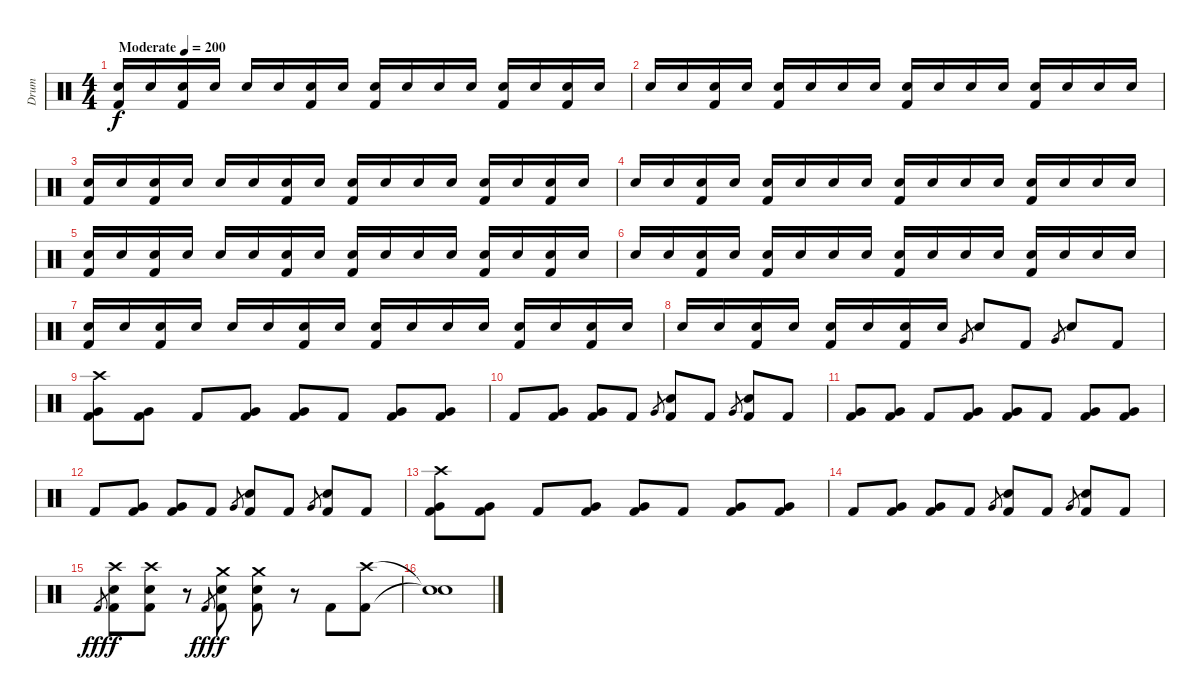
\track ("Drum" "Drum") {instrument percussion}
\staff {score}
\articulation defaults
\ts (4 4)
\tempo (200 "Moderate")
\clef neutral
\ks c
("Electric Snare (hit)" "Kick (hit) 2").16{dy f} "Electric Snare (hit)".16 ("Electric Snare (hit)" "Kick (hit) 2").16 "Electric Snare (hit)".16 "Electric Snare (hit)".16 "Electric Snare (hit)".16 ("Electric Snare (hit)" "Kick (hit) 2").16 "Electric Snare (hit)".16 ("Electric Snare (hit)" "Kick (hit) 2").16 "Electric Snare (hit)".16 "Electric Snare (hit)".16 "Electric Snare (hit)".16 ("Electric Snare (hit)" "Kick (hit) 2").16 "Electric Snare (hit)".16 ("Electric Snare (hit)" "Kick (hit) 2").16 "Electric Snare (hit)".16 |
"Electric Snare (hit)".16 "Electric Snare (hit)".16 ("Electric Snare (hit)" "Kick (hit) 2").16 "Electric Snare (hit)".16 ("Electric Snare (hit)" "Kick (hit) 2").16 "Electric Snare (hit)".16 "Electric Snare (hit)".16 "Electric Snare (hit)".16 ("Electric Snare (hit)" "Kick (hit) 2").16 "Electric Snare (hit)".16 "Electric Snare (hit)".16 "Electric Snare (hit)".16 ("Electric Snare (hit)" "Kick (hit) 2").16 "Electric Snare (hit)".16 "Electric Snare (hit)".16 "Electric Snare (hit)".16 |
("Electric Snare (hit)" "Kick (hit) 2").16 "Electric Snare (hit)".16 ("Electric Snare (hit)" "Kick (hit) 2").16 "Electric Snare (hit)".16 "Electric Snare (hit)".16 "Electric Snare (hit)".16 ("Electric Snare (hit)" "Kick (hit) 2").16 "Electric Snare (hit)".16 ("Electric Snare (hit)" "Kick (hit) 2").16 "Electric Snare (hit)".16 "Electric Snare (hit)".16 "Electric Snare (hit)".16 ("Electric Snare (hit)" "Kick (hit) 2").16 "Electric Snare (hit)".16 ("Electric Snare (hit)" "Kick (hit) 2").16 "Electric Snare (hit)".16 |
"Electric Snare (hit)".16 "Electric Snare (hit)".16 ("Electric Snare (hit)" "Kick (hit) 2").16 "Electric Snare (hit)".16 ("Electric Snare (hit)" "Kick (hit) 2").16 "Electric Snare (hit)".16 "Electric Snare (hit)".16 "Electric Snare (hit)".16 ("Electric Snare (hit)" "Kick (hit) 2").16 "Electric Snare (hit)".16 "Electric Snare (hit)".16 "Electric Snare (hit)".16 ("Electric Snare (hit)" "Kick (hit) 2").16 "Electric Snare (hit)".16 "Electric Snare (hit)".16 "Electric Snare (hit)".16 |
("Electric Snare (hit)" "Kick (hit) 2").16 "Electric Snare (hit)".16 ("Electric Snare (hit)" "Kick (hit) 2").16 "Electric Snare (hit)".16 "Electric Snare (hit)".16 "Electric Snare (hit)".16 ("Electric Snare (hit)" "Kick (hit) 2").16 "Electric Snare (hit)".16 ("Electric Snare (hit)" "Kick (hit) 2").16 "Electric Snare (hit)".16 "Electric Snare (hit)".16 "Electric Snare (hit)".16 ("Electric Snare (hit)" "Kick (hit) 2").16 "Electric Snare (hit)".16 ("Electric Snare (hit)" "Kick (hit) 2").16 "Electric Snare (hit)".16 |
"Electric Snare (hit)".16 "Electric Snare (hit)".16 ("Electric Snare (hit)" "Kick (hit) 2").16 "Electric Snare (hit)".16 ("Electric Snare (hit)" "Kick (hit) 2").16 "Electric Snare (hit)".16 "Electric Snare (hit)".16 "Electric Snare (hit)".16 ("Electric Snare (hit)" "Kick (hit) 2").16 "Electric Snare (hit)".16 "Electric Snare (hit)".16 "Electric Snare (hit)".16 ("Electric Snare (hit)" "Kick (hit) 2").16 "Electric Snare (hit)".16 "Electric Snare (hit)".16 "Electric Snare (hit)".16 |
("Electric Snare (hit)" "Kick (hit) 2").16 "Electric Snare (hit)".16 ("Electric Snare (hit)" "Kick (hit) 2").16 "Electric Snare (hit)".16 "Electric Snare (hit)".16 "Electric Snare (hit)".16 ("Electric Snare (hit)" "Kick (hit) 2").16 "Electric Snare (hit)".16 ("Electric Snare (hit)" "Kick (hit) 2").16 "Electric Snare (hit)".16 "Electric Snare (hit)".16 "Electric Snare (hit)".16 ("Electric Snare (hit)" "Kick (hit) 2").16 "Electric Snare (hit)".16 ("Electric Snare (hit)" "Kick (hit) 2").16 "Electric Snare (hit)".16 |
"Electric Snare (hit)".16 "Electric Snare (hit)".16 ("Electric Snare (hit)" "Kick (hit) 2").16 "Electric Snare (hit)".16 ("Electric Snare (hit)" "Kick (hit) 2").16 "Electric Snare (hit)".16 ("Electric Snare (hit)" "Kick (hit) 2").16 "Electric Snare (hit)".16 "Very Low Tom (hit)".8{gr} "Electric Snare (hit)".8 "Kick (hit) 2".8 "Very Low Tom (hit)".8{gr} "Electric Snare (hit)".8 "Kick (hit) 2".8 |
("Crash high (hit)" "Very Low Tom (hit)" "Kick (hit) 2").8 ("Very Low Tom (hit)" "Kick (hit) 2").8 "Kick (hit) 2".8 ("Very Low Tom (hit)" "Kick (hit) 2").8 ("Very Low Tom (hit)" "Kick (hit) 2").8 "Kick (hit) 2".8 ("Very Low Tom (hit)" "Kick (hit) 2").8 ("Very Low Tom (hit)" "Kick (hit) 2").8 |
"Kick (hit) 2".8 ("Very Low Tom (hit)" "Kick (hit) 2").8 ("Very Low Tom (hit)" "Kick (hit) 2").8 "Kick (hit) 2".8 "Very Low Tom (hit)".8{gr} ("Electric Snare (hit)" "Kick (hit) 2").8 "Kick (hit) 2".8 "Very Low Tom (hit)".8{gr} ("Electric Snare (hit)" "Kick (hit) 2").8 "Kick (hit) 2".8 |
("Very Low Tom (hit)" "Kick (hit) 2").8 ("Very Low Tom (hit)" "Kick (hit) 2").8 "Kick (hit) 2".8 ("Very Low Tom (hit)" "Kick (hit) 2").8 ("Very Low Tom (hit)" "Kick (hit) 2").8 "Kick (hit) 2".8 ("Very Low Tom (hit)" "Kick (hit) 2").8 ("Very Low Tom (hit)" "Kick (hit) 2").8 |
"Kick (hit) 2".8 ("Very Low Tom (hit)" "Kick (hit) 2").8 ("Very Low Tom (hit)" "Kick (hit) 2").8 "Kick (hit) 2".8 "Very Low Tom (hit)".8{gr} ("Electric Snare (hit)" "Kick (hit) 2").8 "Kick (hit) 2".8 "Very Low Tom (hit)".8{gr} ("Electric Snare (hit)" "Kick (hit) 2").8 "Kick (hit) 2".8 |
("Crash high (hit)" "Very Low Tom (hit)" "Kick (hit) 2").8 ("Very Low Tom (hit)" "Kick (hit) 2").8 "Kick (hit) 2".8 ("Very Low Tom (hit)" "Kick (hit) 2").8 ("Very Low Tom (hit)" "Kick (hit) 2").8 "Kick (hit) 2".8 ("Very Low Tom (hit)" "Kick (hit) 2").8 ("Very Low Tom (hit)" "Kick (hit) 2").8 |
"Kick (hit) 2".8 ("Very Low Tom (hit)" "Kick (hit) 2").8 ("Very Low Tom (hit)" "Kick (hit) 2").8 "Kick (hit) 2".8 "Very Low Tom (hit)".8{gr} ("Electric Snare (hit)" "Kick (hit) 2").8 "Kick (hit) 2".8 "Very Low Tom (hit)".8{gr} ("Electric Snare (hit)" "Kick (hit) 2").8 "Kick (hit) 2".8 |
"Kick (hit) 2".8{gr dy fff} ("Crash high (hit)" "Electric Snare (hit)" "Kick (hit) 2").8{dy f} ("Crash high (hit)" "Electric Snare (hit)" "Kick (hit) 2").8 r.8 "Kick (hit) 2".8{gr dy fff} ("Crash medium (hit)" "Electric Snare (hit)" "Kick (hit) 2").8{dy f} ("Crash medium (hit)" "Electric Snare (hit)" "Kick (hit) 2").8 r.8 "Kick (hit) 2".8 ("Crash high (hit)" "Kick (hit) 2").8 |
("Snare (hit)"{t} "Snare (hit)"{t}).1
